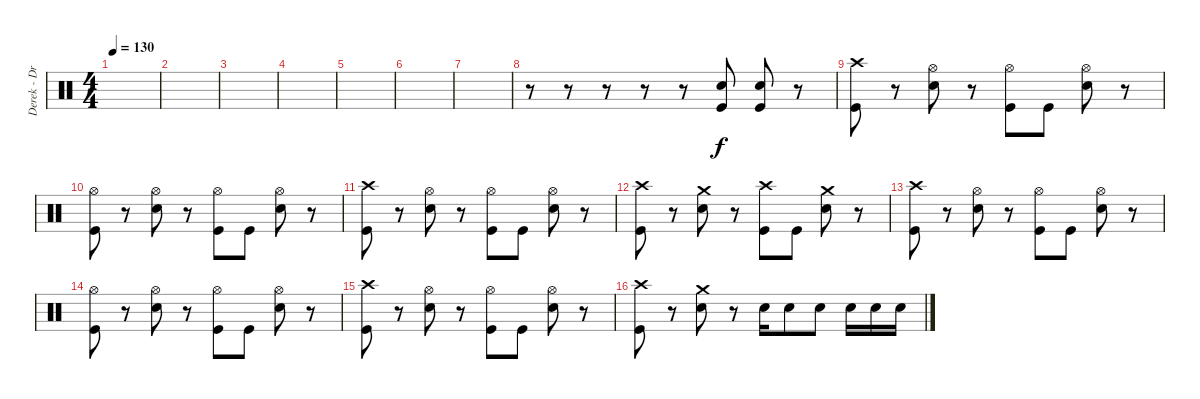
\track ("Derek - Drums" "Derek - Dr") {instrument percussion}
\staff {score}
\articulation defaults
\ts (4 4)
\tempo 130
\clef neutral
\ks c
|
|
|
|
|
|
|
r.8 r.8 r.8 r.8 r.8 ("Electric Snare (hit)" "Kick (hit)").8 ("Electric Snare (hit)" "Kick (hit)").8 r.8 |
("Crash high (hit)" "Kick (hit)").8 r.8 ("Hi-Hat (open)" "Electric Snare (hit)").8 r.8 ("Hi-Hat (open)" "Kick (hit)").8 "Kick (hit)".8 ("Hi-Hat (open)" "Electric Snare (hit)").8 r.8 |
("Hi-Hat (open)" "Kick (hit)").8 r.8 ("Hi-Hat (open)" "Electric Snare (hit)").8 r.8 ("Hi-Hat (open)" "Kick (hit)").8 "Kick (hit)".8 ("Hi-Hat (open)" "Electric Snare (hit)").8 r.8 |
("Crash high (hit)" "Kick (hit)").8 r.8 ("Hi-Hat (open)" "Electric Snare (hit)").8 r.8 ("Hi-Hat (open)" "Kick (hit)").8 "Kick (hit)".8 ("Hi-Hat (open)" "Electric Snare (hit)").8 r.8 |
("Crash high (hit)" "Kick (hit)").8 r.8 ("Crash medium (hit)" "Electric Snare (hit)").8 r.8 ("Crash high (hit)" "Kick (hit)").8 "Kick (hit)".8 ("Crash medium (hit)" "Electric Snare (hit)").8 r.8 |
("Crash high (hit)" "Kick (hit)").8 r.8 ("Hi-Hat (open)" "Electric Snare (hit)").8 r.8 ("Hi-Hat (open)" "Kick (hit)").8 "Kick (hit)".8 ("Hi-Hat (open)" "Electric Snare (hit)").8 r.8 |
("Hi-Hat (open)" "Kick (hit)").8 r.8 ("Hi-Hat (open)" "Electric Snare (hit)").8 r.8 ("Hi-Hat (open)" "Kick (hit)").8 "Kick (hit)".8 ("Hi-Hat (open)" "Electric Snare (hit)").8 r.8 |
("Crash high (hit)" "Kick (hit)").8 r.8 ("Hi-Hat (open)" "Electric Snare (hit)").8 r.8 ("Hi-Hat (open)" "Kick (hit)").8 "Kick (hit)".8 ("Hi-Hat (open)" "Electric Snare (hit)").8 r.8 |
("Crash high (hit)" "Kick (hit)").8 r.8 ("Crash medium (hit)" "Electric Snare (hit)").8 r.8 "Electric Snare (hit)".16 "Electric Snare (hit)".8 "Electric Snare (hit)".8 "Electric Snare (hit)".16 "Electric Snare (hit)".16 "Electric Snare (hit)".16
